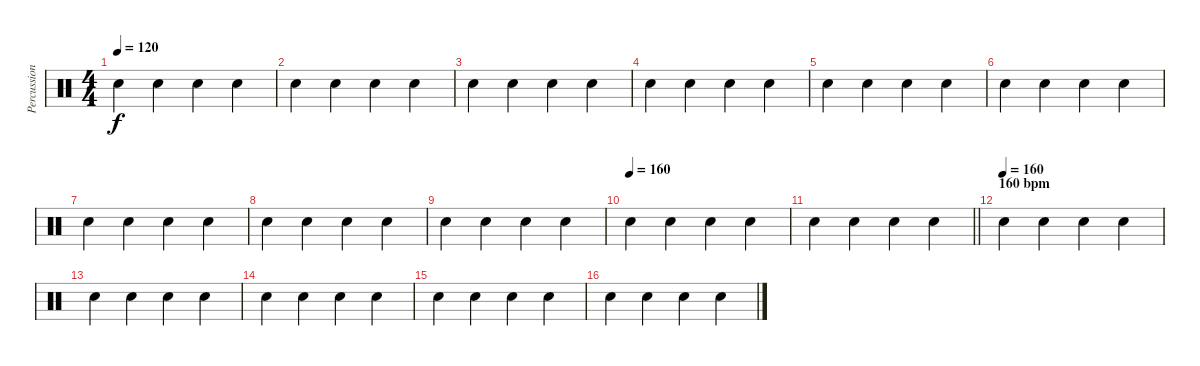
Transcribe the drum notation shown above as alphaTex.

\track ("Percussion" "Percussion") {instrument percussion}
\staff {score}
\articulation defaults
\ts (4 4)
\tempo 120
\clef neutral
\ks c "Snare (hit) 2".4{dy f} "Snare (hit) 2".4 "Snare (hit) 2".4 "Snare (hit) 2".4
|
"Snare (hit) 2".4 "Snare (hit) 2".4 "Snare (hit) 2".4 "Snare (hit) 2".4 |
"Snare (hit) 2".4 "Snare (hit) 2".4 "Snare (hit) 2".4 "Snare (hit) 2".4 |
"Snare (hit) 2".4 "Snare (hit) 2".4 "Snare (hit) 2".4 "Snare (hit) 2".4 |
"Snare (hit) 2".4 "Snare (hit) 2".4 "Snare (hit) 2".4 "Snare (hit) 2".4 |
"Snare (hit) 2".4 "Snare (hit) 2".4 "Snare (hit) 2".4 "Snare (hit) 2".4 |
"Snare (hit) 2".4 "Snare (hit) 2".4 "Snare (hit) 2".4 "Snare (hit) 2".4 |
"Snare (hit) 2".4 "Snare (hit) 2".4 "Snare (hit) 2".4 "Snare (hit) 2".4 |
"Snare (hit) 2".4 "Snare (hit) 2".4 "Snare (hit) 2".4 "Snare (hit) 2".4 |
\tempo (160)
"Snare (hit) 2".4 "Snare (hit) 2".4 "Snare (hit) 2".4 "Snare (hit) 2".4 |
\barLineRight lightlight "Snare (hit) 2".4 "Snare (hit) 2".4 "Snare (hit) 2".4 "Snare (hit) 2".4
|
\section ("" "160 bpm")
\tempo (160)
"Snare (hit) 2".4 "Snare (hit) 2".4 "Snare (hit) 2".4 "Snare (hit) 2".4 |
"Snare (hit) 2".4 "Snare (hit) 2".4 "Snare (hit) 2".4 "Snare (hit) 2".4 |
"Snare (hit) 2".4 "Snare (hit) 2".4 "Snare (hit) 2".4 "Snare (hit) 2".4 |
"Snare (hit) 2".4 "Snare (hit) 2".4 "Snare (hit) 2".4 "Snare (hit) 2".4 |
"Snare (hit) 2".4 "Snare (hit) 2".4 "Snare (hit) 2".4 "Snare (hit) 2".4
